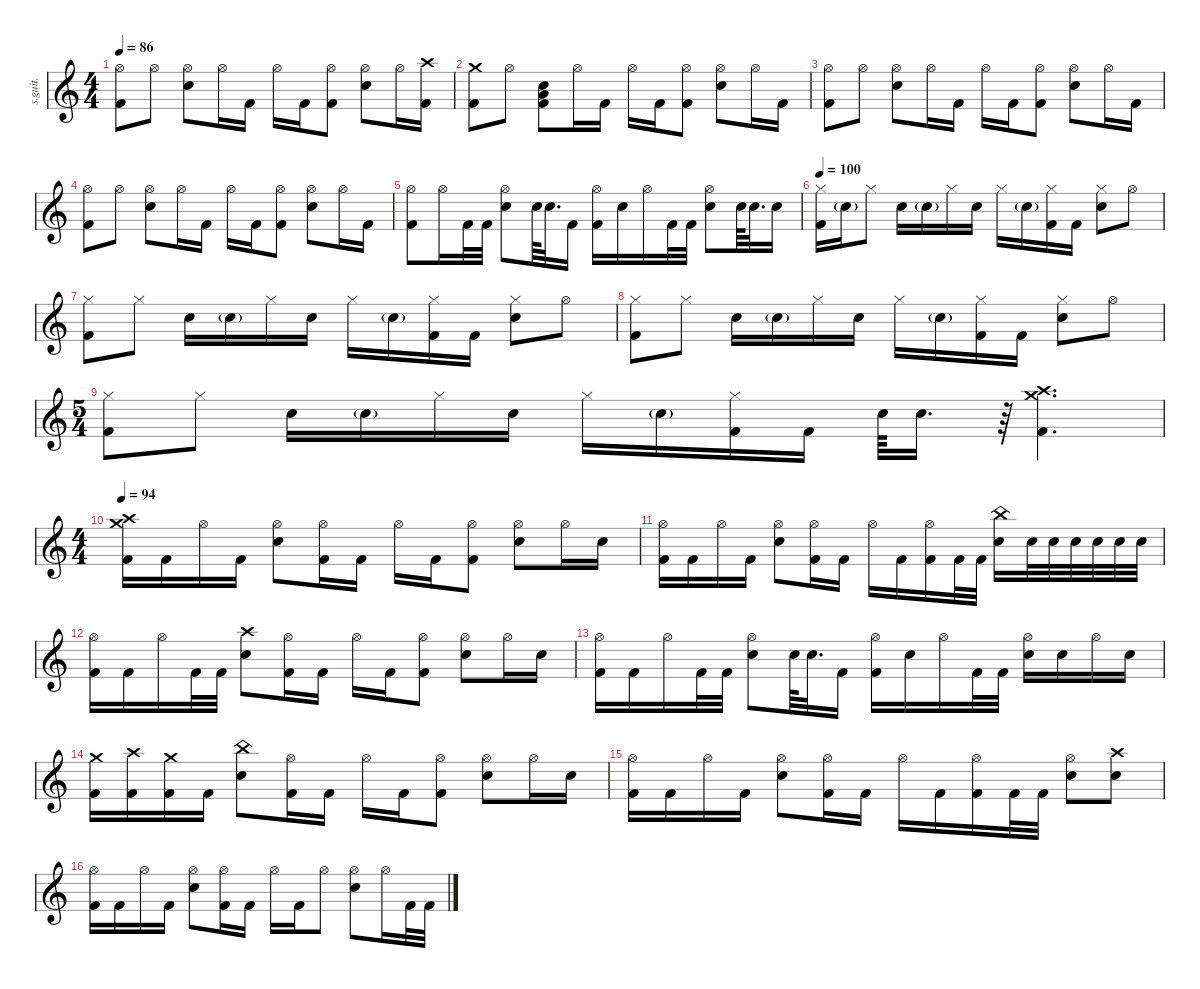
\defaultSystemsLayout 4
\hideDynamics
\bracketExtendMode nobrackets
\track ("David Silveria" "s.guit.") {instrument percussion}
\staff {score}
\articulation defaults
\ts (4 4)
\tempo 86
\clef g2
\ks c
("Kick (hit) 2" "Hi-Hat (open)").8{dy f} "Hi-Hat (open)".8 ("Snare (hit) 2" "Hi-Hat (open)").8 "Hi-Hat (open)".16 "Kick (hit) 2".16 "Hi-Hat (open)".16 "Kick (hit) 2".16 ("Kick (hit) 2" "Hi-Hat (open)").8 ("Hi-Hat (open)" "Snare (hit) 2").8 "Hi-Hat (open)".16 ("Kick (hit) 2" "Crash high (hit)").16 |
("Kick (hit) 2" "Crash medium (hit)").8 "Hi-Hat (open)".8 ("Snare (hit) 2" "Kick (hit) 2" "Low Tom (hit)").8 "Hi-Hat (open)".16 "Kick (hit) 2".16 "Hi-Hat (open)".16 "Kick (hit) 2".16 ("Kick (hit) 2" "Hi-Hat (open)").8 ("Hi-Hat (open)" "Snare (hit) 2").8 "Hi-Hat (open)".16 "Kick (hit) 2".16 |
("Kick (hit) 2" "Hi-Hat (open)").8 "Hi-Hat (open)".8 ("Snare (hit) 2" "Hi-Hat (open)").8 "Hi-Hat (open)".16 "Kick (hit) 2".16 "Hi-Hat (open)".16 "Kick (hit) 2".16 ("Kick (hit) 2" "Hi-Hat (open)").8 ("Hi-Hat (open)" "Snare (hit) 2").8 "Hi-Hat (open)".16 "Kick (hit) 2".16 |
("Kick (hit) 2" "Hi-Hat (open)").8 "Hi-Hat (open)".8 ("Snare (hit) 2" "Hi-Hat (open)").8 "Hi-Hat (open)".16 "Kick (hit) 2".16 "Hi-Hat (open)".16 "Kick (hit) 2".16 ("Kick (hit) 2" "Hi-Hat (open)").8 ("Hi-Hat (open)" "Snare (hit) 2").8 "Hi-Hat (open)".16 "Kick (hit) 2".16 |
("Kick (hit) 2" "Hi-Hat (open)").8 "Hi-Hat (open)".16 "Kick (hit) 2".32 "Kick (hit) 2".32 ("Snare (hit) 2" "Hi-Hat (open)").8 "Snare (hit) 2".64 "Snare (hit) 2".32{d} "Kick (hit) 2".16 ("Hi-Hat (open)" "Kick (hit) 2").16 "Snare (hit) 2".16 "Hi-Hat (open)".16 "Kick (hit) 2".32 "Kick (hit) 2".32 ("Snare (hit) 2" "Hi-Hat (open)").8 "Snare (hit) 2".64 "Snare (hit) 2".32{d} "Snare (hit) 2".16 |
\tempo 100
("Kick (hit) 2" "Hi-Hat (closed)").16 "Snare (hit) 2"{g}.16{dy mp} "Hi-Hat (closed)".8{dy f} "Snare (hit) 2".16 "Snare (hit) 2"{g}.16{dy mf} "Hi-Hat (closed)".16{dy f} "Snare (hit) 2".16 "Hi-Hat (closed)".16 "Snare (hit) 2"{g}.16{dy mp} ("Hi-Hat (closed)" "Kick (hit) 2").16{dy f} "Kick (hit) 2".16 ("Snare (hit) 2" "Hi-Hat (closed)").8 "Hi-Hat (open)".8 |
("Kick (hit) 2" "Hi-Hat (closed)").8 "Hi-Hat (closed)".8 "Snare (hit) 2".16 "Snare (hit) 2"{g}.16{dy mf} "Hi-Hat (closed)".16{dy f} "Snare (hit) 2".16 "Hi-Hat (closed)".16 "Snare (hit) 2"{g}.16{dy mp} ("Hi-Hat (closed)" "Kick (hit) 2").16{dy f} "Kick (hit) 2".16 ("Snare (hit) 2" "Hi-Hat (closed)").8 "Hi-Hat (open)".8 |
("Kick (hit) 2" "Hi-Hat (closed)").8 "Hi-Hat (closed)".8 "Snare (hit) 2".16 "Snare (hit) 2"{g}.16{dy mf} "Hi-Hat (closed)".16{dy f} "Snare (hit) 2".16 "Hi-Hat (closed)".16 "Snare (hit) 2"{g}.16{dy mp} ("Hi-Hat (closed)" "Kick (hit) 2").16{dy f} "Kick (hit) 2".16 ("Snare (hit) 2" "Hi-Hat (closed)").8 "Hi-Hat (open)".8 |
\ts (5 4)
\beaming (8 2 2 2 2)
("Kick (hit) 2" "Hi-Hat (closed)").8 "Hi-Hat (closed)".8 "Snare (hit) 2".16 "Snare (hit) 2"{g}.16{dy mf} "Hi-Hat (closed)".16{dy f} "Snare (hit) 2".16 "Hi-Hat (closed)".16 "Snare (hit) 2"{g}.16{dy mp} ("Hi-Hat (closed)" "Kick (hit) 2").16{dy f} "Kick (hit) 2".16 "Snare (hit) 2".64 "Snare (hit) 2".16{d} r.64 ("Crash high (hit)" "Crash medium (hit)" "Kick (hit) 2").4{d dy fff} |
\ts (4 4)
\beaming (8 2 2 2 2)
\tempo 94
("Kick (hit) 2" "Crash medium (hit)" "Crash high (hit)").16 "Kick (hit) 2".16{dy ff} "Hi-Hat (open)".16{dy f} "Kick (hit) 2".16 ("Hi-Hat (open)" "Snare (hit) 2").8 ("Hi-Hat (open)" "Kick (hit) 2").16 "Kick (hit) 2".16 "Hi-Hat (open)".16 "Kick (hit) 2".16 ("Hi-Hat (open)" "Kick (hit) 2").8 ("Hi-Hat (open)" "Snare (hit) 2").8 "Hi-Hat (open)".16 "Snare (hit) 2".16 |
("Kick (hit) 2" "Hi-Hat (open)").16 "Kick (hit) 2".16 "Hi-Hat (open)".16 "Kick (hit) 2".16 ("Hi-Hat (open)" "Snare (hit) 2").8 ("Hi-Hat (open)" "Kick (hit) 2").16 "Kick (hit) 2".16 "Hi-Hat (open)".16 "Kick (hit) 2".16 ("Hi-Hat (open)" "Kick (hit) 2").16 "Kick (hit) 2".32 "Kick (hit) 2".32 ("Snare (hit) 2" "China (hit)").16 "Snare (hit) 2".32 "Snare (hit) 2".32 "Snare (hit) 2".32 "Snare (hit) 2".32 "Snare (hit) 2".32 "Snare (hit) 2".32 |
("Hi-Hat (open)" "Kick (hit) 2").16 "Kick (hit) 2".16 "Hi-Hat (open)".16 "Kick (hit) 2".32 "Kick (hit) 2".32 ("Snare (hit) 2" "Crash high (hit)").8 ("Hi-Hat (open)" "Kick (hit) 2").16 "Kick (hit) 2".16 "Hi-Hat (open)".16 "Kick (hit) 2".16 ("Hi-Hat (open)" "Kick (hit) 2").8 ("Hi-Hat (open)" "Snare (hit) 2").8 "Hi-Hat (open)".16 "Snare (hit) 2".16 |
("Kick (hit) 2" "Hi-Hat (open)").16 "Kick (hit) 2".16 "Hi-Hat (open)".16 "Kick (hit) 2".32 "Kick (hit) 2".32 ("Hi-Hat (open)" "Snare (hit) 2").8 "Snare (hit) 2".64 "Snare (hit) 2".32{d} "Kick (hit) 2".16 ("Hi-Hat (open)" "Kick (hit) 2").16 "Snare (hit) 2".16 "Hi-Hat (open)".16 "Kick (hit) 2".32 "Kick (hit) 2".32 ("Hi-Hat (open)" "Snare (hit) 2").16 "Snare (hit) 2".16 "Hi-Hat (open)".16 "Snare (hit) 2".16 |
("Crash medium (hit)" "Kick (hit) 2").16 ("Crash high (hit)" "Kick (hit) 2").16 ("Crash medium (hit)" "Kick (hit) 2").16 "Kick (hit) 2".16 ("Snare (hit) 2" "China (hit)").8 ("Hi-Hat (open)" "Kick (hit) 2").16 "Kick (hit) 2".16 "Hi-Hat (open)".16 "Kick (hit) 2".16 ("Hi-Hat (open)" "Kick (hit) 2").8 ("Hi-Hat (open)" "Snare (hit) 2").8 "Hi-Hat (open)".16 "Snare (hit) 2".16 |
("Kick (hit) 2" "Hi-Hat (open)").16 "Kick (hit) 2".16 "Hi-Hat (open)".16 "Kick (hit) 2".16 ("Snare (hit) 2" "Hi-Hat (open)").8 ("Hi-Hat (open)" "Kick (hit) 2").16 "Kick (hit) 2".16 "Hi-Hat (open)".16 "Kick (hit) 2".16 ("Hi-Hat (open)" "Kick (hit) 2").16 "Kick (hit) 2".32 "Kick (hit) 2".32 ("Hi-Hat (open)" "Snare (hit) 2").8 ("Snare (hit) 2" "Crash high (hit)").8 |
("Kick (hit) 2" "Hi-Hat (open)").16 "Kick (hit) 2".16 "Hi-Hat (open)".16 "Kick (hit) 2".16 ("Snare (hit) 2" "Hi-Hat (open)").8 ("Hi-Hat (open)" "Kick (hit) 2").16 "Kick (hit) 2".16 "Hi-Hat (open)".16 "Kick (hit) 2".16 "Hi-Hat (open)".8 ("Hi-Hat (open)" "Snare (hit) 2").8 "Hi-Hat (open)".16 "Kick (hit) 2".32 "Kick (hit) 2".32
